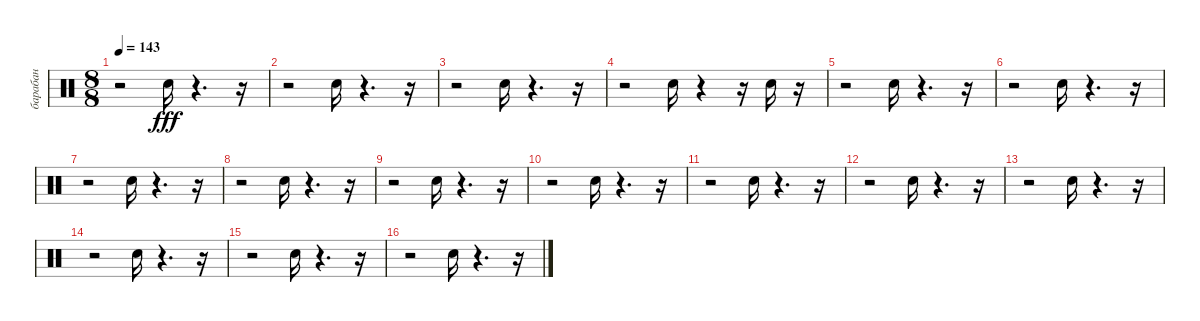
\track ("барабан" "барабан") {instrument percussion}
\staff {score}
\articulation defaults
\ts (8 8)
\tempo 143
\clef neutral
\ks c
r.2{dy fff} "Snare (hit) 2".16 r.4{d} r.16 |
r.2 "Snare (hit) 2".16 r.4{d} r.16 |
r.2 "Snare (hit) 2".16 r.4{d} r.16 |
r.2 "Snare (hit) 2".16 r.4 r.16 "Snare (hit) 2".16 r.16 |
r.2 "Snare (hit) 2".16 r.4{d} r.16 |
r.2 "Snare (hit) 2".16 r.4{d} r.16 |
r.2 "Snare (hit) 2".16 r.4{d} r.16 |
r.2 "Snare (hit) 2".16 r.4{d} r.16 |
r.2 "Snare (hit) 2".16 r.4{d} r.16 |
r.2 "Snare (hit) 2".16 r.4{d} r.16 |
r.2 "Snare (hit) 2".16 r.4{d} r.16 |
r.2 "Snare (hit) 2".16 r.4{d} r.16 |
r.2 "Snare (hit) 2".16 r.4{d} r.16 |
r.2 "Snare (hit) 2".16 r.4{d} r.16 |
r.2 "Snare (hit) 2".16 r.4{d} r.16 |
r.2 "Snare (hit) 2".16 r.4{d} r.16
